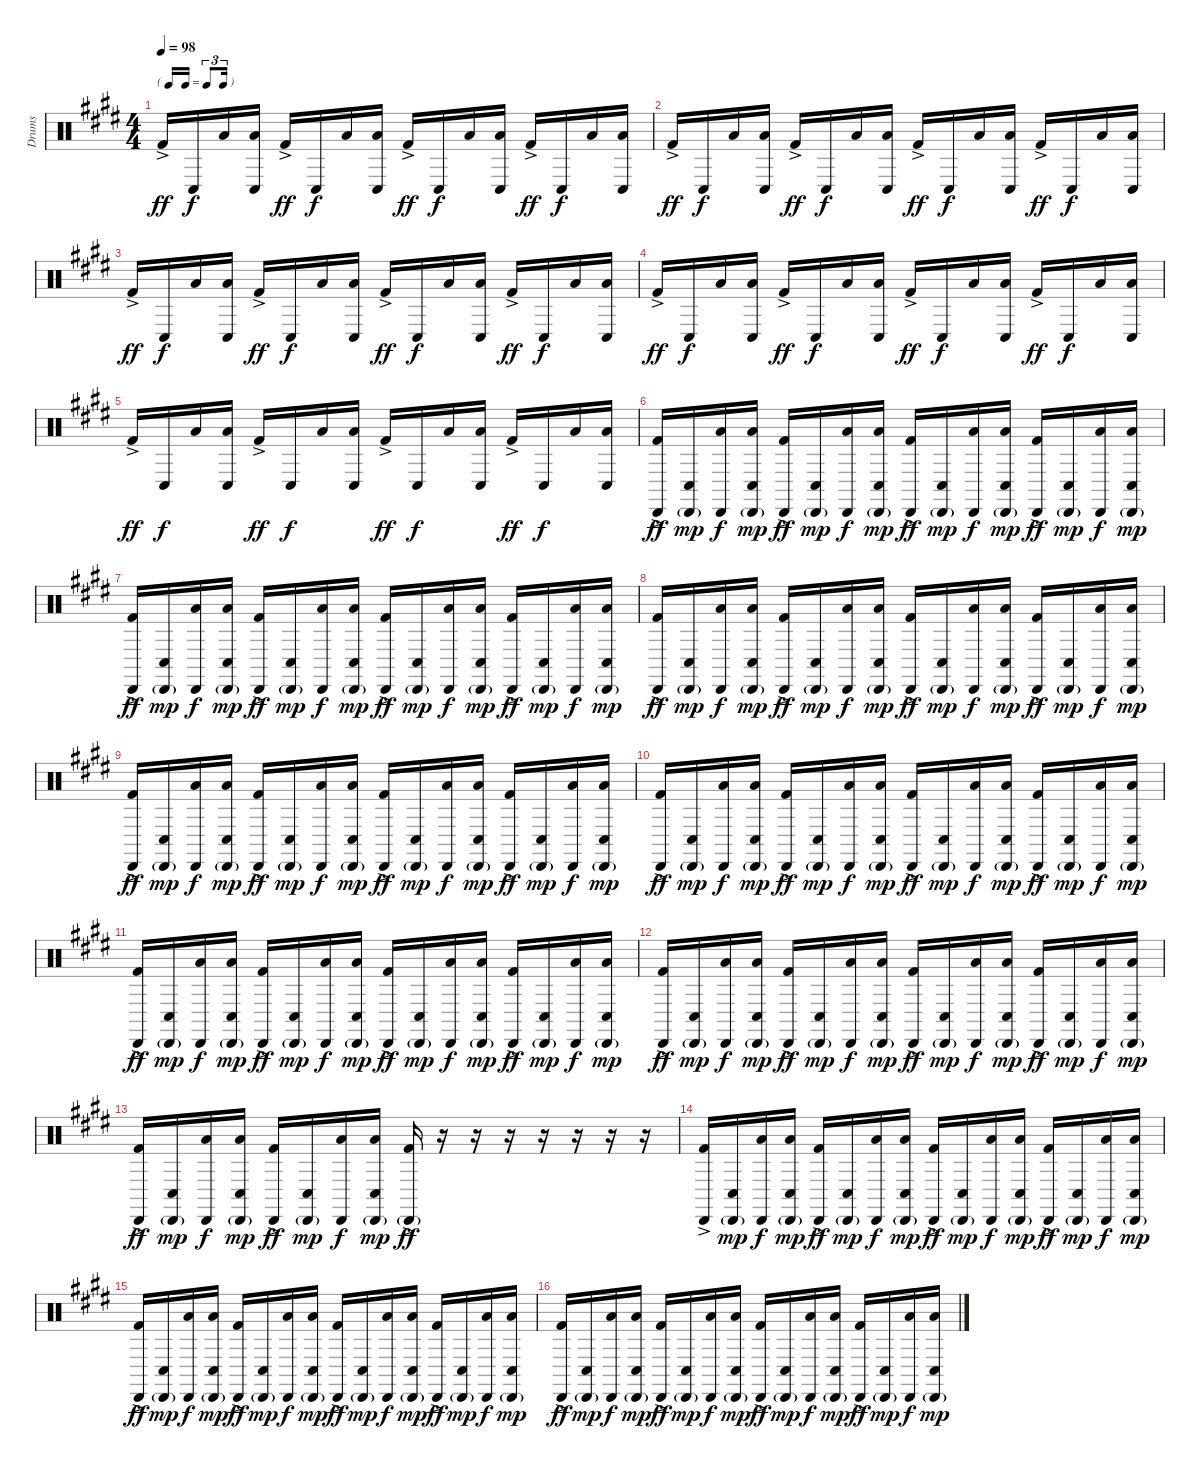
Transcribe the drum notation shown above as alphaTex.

\track ("Drums" "Drums") {instrument percussion}
\staff {score}
\articulation defaults
\ts (4 4)
\tf triplet16th
\tempo 98
\clef neutral
\ks e "Kick (hit) 2"{ac}.16{dy ff} "Conga low (hit)".16{dy f} "Low Tom (hit)".16
("Low Tom (hit)" "Conga low (hit)").16 "Kick (hit) 2"{ac}.16{dy ff} "Conga low (hit)".16{dy f} "Low Tom (hit)".16 ("Low Tom (hit)" "Conga low (hit)").16 "Kick (hit) 2"{ac}.16{dy ff} "Conga low (hit)".16{dy f} "Low Tom (hit)".16 ("Low Tom (hit)" "Conga low (hit)").16 "Kick (hit) 2"{ac}.16{dy ff} "Conga low (hit)".16{dy f} "Low Tom (hit)".16 ("Low Tom (hit)" "Conga low (hit)").16 |
"Kick (hit) 2"{ac}.16{dy ff} "Conga low (hit)".16{dy f} "Low Tom (hit)".16 ("Low Tom (hit)" "Conga low (hit)").16 "Kick (hit) 2"{ac}.16{dy ff} "Conga low (hit)".16{dy f} "Low Tom (hit)".16 ("Low Tom (hit)" "Conga low (hit)").16 "Kick (hit) 2"{ac}.16{dy ff} "Conga low (hit)".16{dy f} "Low Tom (hit)".16 ("Low Tom (hit)" "Conga low (hit)").16 "Kick (hit) 2"{ac}.16{dy ff} "Conga low (hit)".16{dy f} "Low Tom (hit)".16 ("Low Tom (hit)" "Conga low (hit)").16 |
"Kick (hit) 2"{ac}.16{dy ff} "Conga low (hit)".16{dy f} "Low Tom (hit)".16 ("Low Tom (hit)" "Conga low (hit)").16 "Kick (hit) 2"{ac}.16{dy ff} "Conga low (hit)".16{dy f} "Low Tom (hit)".16 ("Low Tom (hit)" "Conga low (hit)").16 "Kick (hit) 2"{ac}.16{dy ff} "Conga low (hit)".16{dy f} "Low Tom (hit)".16 ("Low Tom (hit)" "Conga low (hit)").16 "Kick (hit) 2"{ac}.16{dy ff} "Conga low (hit)".16{dy f} "Low Tom (hit)".16 ("Low Tom (hit)" "Conga low (hit)").16 |
"Kick (hit) 2"{ac}.16{dy ff} "Conga low (hit)".16{dy f} "Low Tom (hit)".16 ("Low Tom (hit)" "Conga low (hit)").16 "Kick (hit) 2"{ac}.16{dy ff} "Conga low (hit)".16{dy f} "Low Tom (hit)".16 ("Low Tom (hit)" "Conga low (hit)").16 "Kick (hit) 2"{ac}.16{dy ff} "Conga low (hit)".16{dy f} "Low Tom (hit)".16 ("Low Tom (hit)" "Conga low (hit)").16 "Kick (hit) 2"{ac}.16{dy ff} "Conga low (hit)".16{dy f} "Low Tom (hit)".16 ("Low Tom (hit)" "Conga low (hit)").16 |
"Kick (hit) 2"{ac}.16{dy ff} "Conga low (hit)".16{dy f} "Low Tom (hit)".16 ("Low Tom (hit)" "Conga low (hit)").16 "Kick (hit) 2"{ac}.16{dy ff} "Conga low (hit)".16{dy f} "Low Tom (hit)".16 ("Low Tom (hit)" "Conga low (hit)").16 "Kick (hit) 2"{ac}.16{dy ff} "Conga low (hit)".16{dy f} "Low Tom (hit)".16 ("Low Tom (hit)" "Conga low (hit)").16 "Kick (hit) 2"{ac}.16{dy ff} "Conga low (hit)".16{dy f} "Low Tom (hit)".16 ("Low Tom (hit)" "Conga low (hit)").16 |
("Cabasa (hit)" "Kick (hit) 2"{ac}).16{dy ff} ("Cabasa (hit)"{g} "Conga low (hit)").16{dy mp} ("Cabasa (hit)" "Low Tom (hit)").16{dy f} ("Cabasa (hit)"{g} "Low Tom (hit)" "Conga low (hit)").16{dy mp} ("Cabasa (hit)" "Kick (hit) 2"{ac}).16{dy ff} ("Cabasa (hit)"{g} "Conga low (hit)").16{dy mp} ("Cabasa (hit)" "Low Tom (hit)").16{dy f} ("Cabasa (hit)"{g} "Low Tom (hit)" "Conga low (hit)").16{dy mp} ("Cabasa (hit)" "Kick (hit) 2"{ac}).16{dy ff} ("Cabasa (hit)"{g} "Conga low (hit)").16{dy mp} ("Cabasa (hit)" "Low Tom (hit)").16{dy f} ("Cabasa (hit)"{g} "Low Tom (hit)" "Conga low (hit)").16{dy mp} ("Cabasa (hit)" "Kick (hit) 2"{ac}).16{dy ff} ("Cabasa (hit)"{g} "Conga low (hit)").16{dy mp} ("Cabasa (hit)" "Low Tom (hit)").16{dy f} ("Cabasa (hit)"{g} "Low Tom (hit)" "Conga low (hit)").16{dy mp} |
("Cabasa (hit)" "Kick (hit) 2"{ac}).16{dy ff} ("Cabasa (hit)"{g} "Conga low (hit)").16{dy mp} ("Cabasa (hit)" "Low Tom (hit)").16{dy f} ("Cabasa (hit)"{g} "Low Tom (hit)" "Conga low (hit)").16{dy mp} ("Cabasa (hit)" "Kick (hit) 2"{ac}).16{dy ff} ("Cabasa (hit)"{g} "Conga low (hit)").16{dy mp} ("Cabasa (hit)" "Low Tom (hit)").16{dy f} ("Cabasa (hit)"{g} "Low Tom (hit)" "Conga low (hit)").16{dy mp} ("Cabasa (hit)" "Kick (hit) 2"{ac}).16{dy ff} ("Cabasa (hit)"{g} "Conga low (hit)").16{dy mp} ("Cabasa (hit)" "Low Tom (hit)").16{dy f} ("Cabasa (hit)"{g} "Low Tom (hit)" "Conga low (hit)").16{dy mp} ("Cabasa (hit)" "Kick (hit) 2"{ac}).16{dy ff} ("Cabasa (hit)"{g} "Conga low (hit)").16{dy mp} ("Cabasa (hit)" "Low Tom (hit)").16{dy f} ("Cabasa (hit)"{g} "Low Tom (hit)" "Conga low (hit)").16{dy mp} |
("Cabasa (hit)" "Kick (hit) 2"{ac}).16{dy ff} ("Cabasa (hit)"{g} "Conga low (hit)").16{dy mp} ("Cabasa (hit)" "Low Tom (hit)").16{dy f} ("Cabasa (hit)"{g} "Low Tom (hit)" "Conga low (hit)").16{dy mp} ("Cabasa (hit)" "Kick (hit) 2"{ac}).16{dy ff} ("Cabasa (hit)"{g} "Conga low (hit)").16{dy mp} ("Cabasa (hit)" "Low Tom (hit)").16{dy f} ("Cabasa (hit)"{g} "Low Tom (hit)" "Conga low (hit)").16{dy mp} ("Cabasa (hit)" "Kick (hit) 2"{ac}).16{dy ff} ("Cabasa (hit)"{g} "Conga low (hit)").16{dy mp} ("Cabasa (hit)" "Low Tom (hit)").16{dy f} ("Cabasa (hit)"{g} "Low Tom (hit)" "Conga low (hit)").16{dy mp} ("Cabasa (hit)" "Kick (hit) 2"{ac}).16{dy ff} ("Cabasa (hit)"{g} "Conga low (hit)").16{dy mp} ("Cabasa (hit)" "Low Tom (hit)").16{dy f} ("Cabasa (hit)"{g} "Low Tom (hit)" "Conga low (hit)").16{dy mp} |
("Cabasa (hit)" "Kick (hit) 2"{ac}).16{dy ff} ("Cabasa (hit)"{g} "Conga low (hit)").16{dy mp} ("Cabasa (hit)" "Low Tom (hit)").16{dy f} ("Cabasa (hit)"{g} "Low Tom (hit)" "Conga low (hit)").16{dy mp} ("Cabasa (hit)" "Kick (hit) 2"{ac}).16{dy ff} ("Cabasa (hit)"{g} "Conga low (hit)").16{dy mp} ("Cabasa (hit)" "Low Tom (hit)").16{dy f} ("Cabasa (hit)"{g} "Low Tom (hit)" "Conga low (hit)").16{dy mp} ("Cabasa (hit)" "Kick (hit) 2"{ac}).16{dy ff} ("Cabasa (hit)"{g} "Conga low (hit)").16{dy mp} ("Cabasa (hit)" "Low Tom (hit)").16{dy f} ("Cabasa (hit)"{g} "Low Tom (hit)" "Conga low (hit)").16{dy mp} ("Cabasa (hit)" "Kick (hit) 2"{ac}).16{dy ff} ("Cabasa (hit)"{g} "Conga low (hit)").16{dy mp} ("Cabasa (hit)" "Low Tom (hit)").16{dy f} ("Cabasa (hit)"{g} "Low Tom (hit)" "Conga low (hit)").16{dy mp} |
("Cabasa (hit)" "Kick (hit) 2"{ac}).16{dy ff} ("Cabasa (hit)"{g} "Conga low (hit)").16{dy mp} ("Cabasa (hit)" "Low Tom (hit)").16{dy f} ("Cabasa (hit)"{g} "Low Tom (hit)" "Conga low (hit)").16{dy mp} ("Cabasa (hit)" "Kick (hit) 2"{ac}).16{dy ff} ("Cabasa (hit)"{g} "Conga low (hit)").16{dy mp} ("Cabasa (hit)" "Low Tom (hit)").16{dy f} ("Cabasa (hit)"{g} "Low Tom (hit)" "Conga low (hit)").16{dy mp} ("Cabasa (hit)" "Kick (hit) 2"{ac}).16{dy ff} ("Cabasa (hit)"{g} "Conga low (hit)").16{dy mp} ("Cabasa (hit)" "Low Tom (hit)").16{dy f} ("Cabasa (hit)"{g} "Low Tom (hit)" "Conga low (hit)").16{dy mp} ("Cabasa (hit)" "Kick (hit) 2"{ac}).16{dy ff} ("Cabasa (hit)"{g} "Conga low (hit)").16{dy mp} ("Cabasa (hit)" "Low Tom (hit)").16{dy f} ("Cabasa (hit)"{g} "Low Tom (hit)" "Conga low (hit)").16{dy mp} |
("Cabasa (hit)" "Kick (hit) 2"{ac}).16{dy ff} ("Cabasa (hit)"{g} "Conga low (hit)").16{dy mp} ("Cabasa (hit)" "Low Tom (hit)").16{dy f} ("Cabasa (hit)"{g} "Low Tom (hit)" "Conga low (hit)").16{dy mp} ("Cabasa (hit)" "Kick (hit) 2"{ac}).16{dy ff} ("Cabasa (hit)"{g} "Conga low (hit)").16{dy mp} ("Cabasa (hit)" "Low Tom (hit)").16{dy f} ("Cabasa (hit)"{g} "Low Tom (hit)" "Conga low (hit)").16{dy mp} ("Cabasa (hit)" "Kick (hit) 2"{ac}).16{dy ff} ("Cabasa (hit)"{g} "Conga low (hit)").16{dy mp} ("Cabasa (hit)" "Low Tom (hit)").16{dy f} ("Cabasa (hit)"{g} "Low Tom (hit)" "Conga low (hit)").16{dy mp} ("Cabasa (hit)" "Kick (hit) 2"{ac}).16{dy ff} ("Cabasa (hit)"{g} "Conga low (hit)").16{dy mp} ("Cabasa (hit)" "Low Tom (hit)").16{dy f} ("Cabasa (hit)"{g} "Low Tom (hit)" "Conga low (hit)").16{dy mp} |
("Cabasa (hit)" "Kick (hit) 2"{ac}).16{dy ff} ("Cabasa (hit)"{g} "Conga low (hit)").16{dy mp} ("Cabasa (hit)" "Low Tom (hit)").16{dy f} ("Cabasa (hit)"{g} "Low Tom (hit)" "Conga low (hit)").16{dy mp} ("Cabasa (hit)" "Kick (hit) 2"{ac}).16{dy ff} ("Cabasa (hit)"{g} "Conga low (hit)").16{dy mp} ("Cabasa (hit)" "Low Tom (hit)").16{dy f} ("Cabasa (hit)"{g} "Low Tom (hit)" "Conga low (hit)").16{dy mp} ("Cabasa (hit)" "Kick (hit) 2"{ac}).16{dy ff} ("Cabasa (hit)"{g} "Conga low (hit)").16{dy mp} ("Cabasa (hit)" "Low Tom (hit)").16{dy f} ("Cabasa (hit)"{g} "Low Tom (hit)" "Conga low (hit)").16{dy mp} ("Cabasa (hit)" "Kick (hit) 2"{ac}).16{dy ff} ("Cabasa (hit)"{g} "Conga low (hit)").16{dy mp} ("Cabasa (hit)" "Low Tom (hit)").16{dy f} ("Cabasa (hit)"{g} "Low Tom (hit)" "Conga low (hit)").16{dy mp} |
("Cabasa (hit)" "Kick (hit) 2"{ac}).16{dy ff} ("Cabasa (hit)"{g} "Conga low (hit)").16{dy mp} ("Cabasa (hit)" "Low Tom (hit)").16{dy f} ("Cabasa (hit)"{g} "Low Tom (hit)" "Conga low (hit)").16{dy mp} ("Cabasa (hit)" "Kick (hit) 2"{ac}).16{dy ff} ("Cabasa (hit)"{g} "Conga low (hit)").16{dy mp} ("Cabasa (hit)" "Low Tom (hit)").16{dy f} ("Cabasa (hit)"{g} "Low Tom (hit)" "Conga low (hit)").16{dy mp} ("Cabasa (hit)"{g} "Kick (hit) 2"{ac}).16{dy ff} r.16 r.16 r.16 r.16 r.16 r.16 r.16 |
("Cabasa (hit)" "Kick (hit) 2"{ac}).16 ("Cabasa (hit)"{g} "Conga low (hit)").16{dy mp} ("Cabasa (hit)" "Low Tom (hit)").16{dy f} ("Cabasa (hit)"{g} "Low Tom (hit)" "Conga low (hit)").16{dy mp} ("Cabasa (hit)" "Kick (hit) 2"{ac}).16{dy ff} ("Cabasa (hit)"{g} "Conga low (hit)").16{dy mp} ("Cabasa (hit)" "Low Tom (hit)").16{dy f} ("Cabasa (hit)"{g} "Low Tom (hit)" "Conga low (hit)").16{dy mp} ("Cabasa (hit)" "Kick (hit) 2"{ac}).16{dy ff} ("Cabasa (hit)"{g} "Conga low (hit)").16{dy mp} ("Cabasa (hit)" "Low Tom (hit)").16{dy f} ("Cabasa (hit)"{g} "Low Tom (hit)" "Conga low (hit)").16{dy mp} ("Cabasa (hit)" "Kick (hit) 2"{ac}).16{dy ff} ("Cabasa (hit)"{g} "Conga low (hit)").16{dy mp} ("Cabasa (hit)" "Low Tom (hit)").16{dy f} ("Cabasa (hit)"{g} "Low Tom (hit)" "Conga low (hit)").16{dy mp} |
("Cabasa (hit)" "Kick (hit) 2"{ac}).16{dy ff} ("Cabasa (hit)"{g} "Conga low (hit)").16{dy mp} ("Cabasa (hit)" "Low Tom (hit)").16{dy f} ("Cabasa (hit)"{g} "Low Tom (hit)" "Conga low (hit)").16{dy mp} ("Cabasa (hit)" "Kick (hit) 2"{ac}).16{dy ff} ("Cabasa (hit)"{g} "Conga low (hit)").16{dy mp} ("Cabasa (hit)" "Low Tom (hit)").16{dy f} ("Cabasa (hit)"{g} "Low Tom (hit)" "Conga low (hit)").16{dy mp} ("Cabasa (hit)" "Kick (hit) 2"{ac}).16{dy ff} ("Cabasa (hit)"{g} "Conga low (hit)").16{dy mp} ("Cabasa (hit)" "Low Tom (hit)").16{dy f} ("Cabasa (hit)"{g} "Low Tom (hit)" "Conga low (hit)").16{dy mp} ("Cabasa (hit)" "Kick (hit) 2"{ac}).16{dy ff} ("Cabasa (hit)"{g} "Conga low (hit)").16{dy mp} ("Cabasa (hit)" "Low Tom (hit)").16{dy f} ("Cabasa (hit)"{g} "Low Tom (hit)" "Conga low (hit)").16{dy mp} |
("Cabasa (hit)" "Kick (hit) 2"{ac}).16{dy ff} ("Cabasa (hit)"{g} "Conga low (hit)").16{dy mp} ("Cabasa (hit)" "Low Tom (hit)").16{dy f} ("Cabasa (hit)"{g} "Low Tom (hit)" "Conga low (hit)").16{dy mp} ("Cabasa (hit)" "Kick (hit) 2"{ac}).16{dy ff} ("Cabasa (hit)"{g} "Conga low (hit)").16{dy mp} ("Cabasa (hit)" "Low Tom (hit)").16{dy f} ("Cabasa (hit)"{g} "Low Tom (hit)" "Conga low (hit)").16{dy mp} ("Cabasa (hit)" "Kick (hit) 2"{ac}).16{dy ff} ("Cabasa (hit)"{g} "Conga low (hit)").16{dy mp} ("Cabasa (hit)" "Low Tom (hit)").16{dy f} ("Cabasa (hit)"{g} "Low Tom (hit)" "Conga low (hit)").16{dy mp} ("Cabasa (hit)" "Kick (hit) 2"{ac}).16{dy ff} ("Cabasa (hit)"{g} "Conga low (hit)").16{dy mp} ("Cabasa (hit)" "Low Tom (hit)").16{dy f} ("Cabasa (hit)"{g} "Low Tom (hit)" "Conga low (hit)").16{dy mp}
